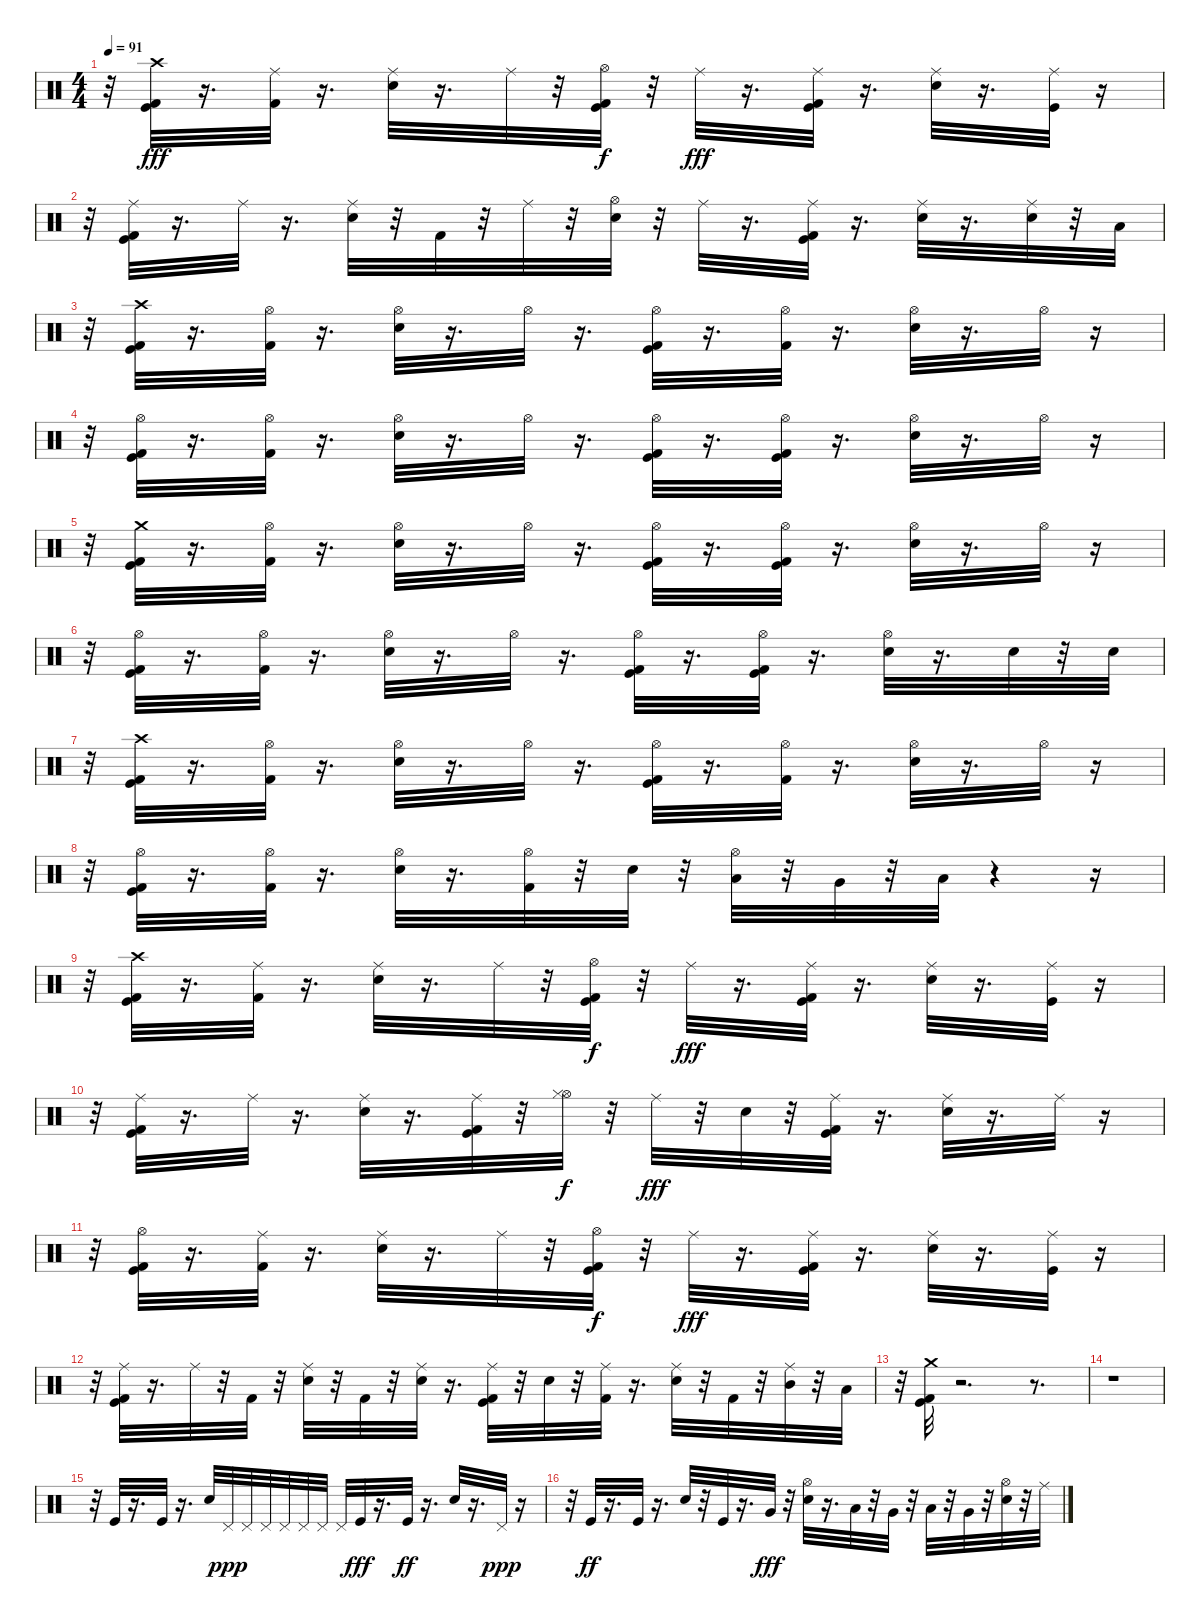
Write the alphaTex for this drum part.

\track "" {instrument percussion}
\staff {score}
\articulation defaults
\ts (4 4)
\tempo 91
\clef neutral
\ks c
r.32{dy fff} ("Crash high (hit)" "Kick (hit) 2" "Kick (hit)").32 r.16{d} ("Kick (hit) 2" "Ride (middle)").32 r.16{d} ("Ride (middle)" "Snare (hit) 2").32 r.16{d} "Ride (middle)".32 r.32 ("Hi-Hat (open)" "Kick (hit) 2" "Kick (hit)").32{dy f} r.32 "Ride (middle)".32{dy fff} r.16{d} ("Ride (middle)" "Kick (hit)" "Kick (hit) 2").32 r.16{d} ("Ride (middle)" "Snare (hit) 2").32 r.16{d} ("Ride (middle)" "Kick (hit)").32 r.16 |
r.32 ("Ride (middle)" "Kick (hit)" "Kick (hit) 2").32 r.16{d} "Ride (middle)".32 r.16{d} ("Ride (middle)" "Snare (hit) 2").32 r.32 "Kick (hit) 2".32 r.32 "Ride (middle)".32 r.32 ("Snare (hit) 2" "Hi-Hat (open)").32 r.32 "Ride (middle)".32 r.16{d} ("Ride (middle)" "Kick (hit)" "Kick (hit) 2").32 r.16{d} ("Ride (middle)" "Snare (hit) 2").32 r.16{d} ("Snare (hit) 2" "Ride (middle)").32 r.32 "Low Tom (hit)".32 |
r.32 ("Kick (hit)" "Kick (hit) 2" "Crash high (hit)").32 r.16{d} ("Kick (hit) 2" "Hi-Hat (open)").32 r.16{d} ("Hi-Hat (open)" "Snare (hit) 2").32 r.16{d} "Hi-Hat (open)".32 r.16{d} ("Kick (hit)" "Kick (hit) 2" "Hi-Hat (open)").32 r.16{d} ("Hi-Hat (open)" "Kick (hit) 2").32 r.16{d} ("Hi-Hat (open)" "Snare (hit) 2").32 r.16{d} "Hi-Hat (open)".32 r.16 |
r.32 ("Kick (hit) 2" "Kick (hit)" "Hi-Hat (open)").32 r.16{d} ("Kick (hit) 2" "Hi-Hat (open)").32 r.16{d} ("Snare (hit) 2" "Hi-Hat (open)").32 r.16{d} "Hi-Hat (open)".32 r.16{d} ("Hi-Hat (open)" "Kick (hit)" "Kick (hit) 2").32 r.16{d} ("Hi-Hat (open)" "Kick (hit)" "Kick (hit) 2").32 r.16{d} ("Snare (hit) 2" "Hi-Hat (open)").32 r.16{d} "Hi-Hat (open)".32 r.16 |
r.32 ("Crash medium (hit)" "Kick (hit) 2" "Kick (hit)").32 r.16{d} ("Hi-Hat (open)" "Kick (hit) 2").32 r.16{d} ("Hi-Hat (open)" "Snare (hit) 2").32 r.16{d} "Hi-Hat (open)".32 r.16{d} ("Hi-Hat (open)" "Kick (hit)" "Kick (hit) 2").32 r.16{d} ("Kick (hit)" "Hi-Hat (open)" "Kick (hit) 2").32 r.16{d} ("Hi-Hat (open)" "Snare (hit) 2").32 r.16{d} "Hi-Hat (open)".32 r.16 |
r.32 ("Kick (hit) 2" "Hi-Hat (open)" "Kick (hit)").32 r.16{d} ("Hi-Hat (open)" "Kick (hit) 2").32 r.16{d} ("Snare (hit) 2" "Hi-Hat (open)").32 r.16{d} "Hi-Hat (open)".32 r.16{d} ("Kick (hit)" "Hi-Hat (open)" "Kick (hit) 2").32 r.16{d} ("Kick (hit)" "Kick (hit) 2" "Hi-Hat (open)").32 r.16{d} ("Snare (hit) 2" "Hi-Hat (open)").32 r.16{d} "Snare (hit) 2".32 r.32 "Snare (hit) 2".32 |
r.32 ("Crash high (hit)" "Kick (hit)" "Kick (hit) 2").32 r.16{d} ("Hi-Hat (open)" "Kick (hit) 2").32 r.16{d} ("Hi-Hat (open)" "Snare (hit) 2").32 r.16{d} "Hi-Hat (open)".32 r.16{d} ("Kick (hit)" "Hi-Hat (open)" "Kick (hit) 2").32 r.16{d} ("Hi-Hat (open)" "Kick (hit) 2").32 r.16{d} ("Snare (hit) 2" "Hi-Hat (open)").32 r.16{d} "Hi-Hat (open)".32 r.16 |
r.32 ("Hi-Hat (open)" "Kick (hit) 2" "Kick (hit)").32 r.16{d} ("Kick (hit) 2" "Hi-Hat (open)").32 r.16{d} ("Hi-Hat (open)" "Snare (hit) 2").32 r.16{d} ("Hi-Hat (open)" "Kick (hit) 2").32 r.32 "Snare (hit) 2".32 r.32 ("Low Tom (hit)" "Hi-Hat (open)").32 r.32 "Very Low Tom (hit)".32 r.32 "Low Floor Tom (hit)".32 r.4 r.16 |
r.32 ("Crash high (hit)" "Kick (hit) 2" "Kick (hit)").32 r.16{d} ("Kick (hit) 2" "Ride (middle)").32 r.16{d} ("Ride (middle)" "Snare (hit) 2").32 r.16{d} "Ride (middle)".32 r.32 ("Hi-Hat (open)" "Kick (hit) 2" "Kick (hit)").32{dy f} r.32 "Ride (middle)".32{dy fff} r.16{d} ("Ride (middle)" "Kick (hit)" "Kick (hit) 2").32 r.16{d} ("Ride (middle)" "Snare (hit) 2").32 r.16{d} ("Ride (middle)" "Kick (hit)").32 r.16 |
r.32 ("Ride (middle)" "Kick (hit)" "Kick (hit) 2").32 r.16{d} "Ride (middle)".32 r.16{d} ("Ride (middle)" "Snare (hit) 2").32 r.16{d} ("Ride (middle)" "Kick (hit)" "Kick (hit) 2").32 r.32 ("Hi-Hat (open)" "Hi-Hat (closed)").32{dy f} r.32 "Ride (middle)".32{dy fff} r.32 "Snare (hit) 2".32 r.32 ("Ride (middle)" "Kick (hit)" "Kick (hit) 2").32 r.16{d} ("Ride (middle)" "Snare (hit) 2").32 r.16{d} "Ride (middle)".32 r.16 |
r.32 ("Hi-Hat (open)" "Kick (hit) 2" "Kick (hit)").32 r.16{d} ("Kick (hit) 2" "Ride (middle)").32 r.16{d} ("Ride (middle)" "Snare (hit) 2").32 r.16{d} "Ride (middle)".32 r.32 ("Hi-Hat (open)" "Kick (hit) 2" "Kick (hit)").32{dy f} r.32 "Ride (middle)".32{dy fff} r.16{d} ("Ride (middle)" "Kick (hit)" "Kick (hit) 2").32 r.16{d} ("Ride (middle)" "Snare (hit) 2").32 r.16{d} ("Ride (middle)" "Kick (hit)").32 r.16 |
r.32 ("Ride (middle)" "Kick (hit)" "Kick (hit) 2").32 r.16{d} "Ride (middle)".32 r.32 "Kick (hit) 2".32 r.32 ("Ride (middle)" "Snare (hit) 2").32 r.32 "Kick (hit) 2".32 r.32 ("Snare (hit) 2" "Ride (middle)").32 r.16{d} ("Kick (hit)" "Kick (hit) 2" "Ride (middle)").32 r.32 "Snare (hit) 2".32 r.32 ("Kick (hit) 2" "Ride (middle)").32 r.16{d} ("Snare (hit) 2" "Ride (middle)").32 r.32 "Kick (hit) 2".32 r.32 ("Mid Tom (hit)" "Ride (middle)").32 r.32 "Low Tom (hit)".32 |
r.32 ("Kick (hit)" "Kick (hit) 2" "Crash medium (hit)").32 r.2{d} r.8{d} |
r.1 |
r.32 "Kick (hit)".32 r.16{d} "Kick (hit)".32 r.16{d} "Electric Snare (hit)".32 "Pedal Hi-Hat (hit)".32{dy ppp} "Pedal Hi-Hat (hit)".32 "Pedal Hi-Hat (hit)".32 "Pedal Hi-Hat (hit)".32 "Pedal Hi-Hat (hit)".32 "Pedal Hi-Hat (hit)".32 "Pedal Hi-Hat (hit)".32 "Kick (hit)".32{dy fff} r.16{d} "Kick (hit)".32{dy ff} r.16{d} "Electric Snare (hit)".32 r.16{d} "Pedal Hi-Hat (hit)".32{dy ppp} r.16 |
r.32 "Kick (hit)".32{dy ff} r.16{d} "Kick (hit)".32 r.16{d} "Electric Snare (hit)".32 r.32 "Kick (hit)".32 r.16{d} "Very Low Tom (hit)".32{dy fff} r.32 ("Hi-Hat (open)" "Snare (hit) 2").32 r.16{d} "Low Tom (hit)".32 r.32 "Very Low Tom (hit)".32 r.32 "Low Floor Tom (hit)".32 r.32 "Very Low Tom (hit)".32 r.32 ("Hi-Hat (open)" "Snare (hit) 2").32 r.32 "Ride (middle)".32
